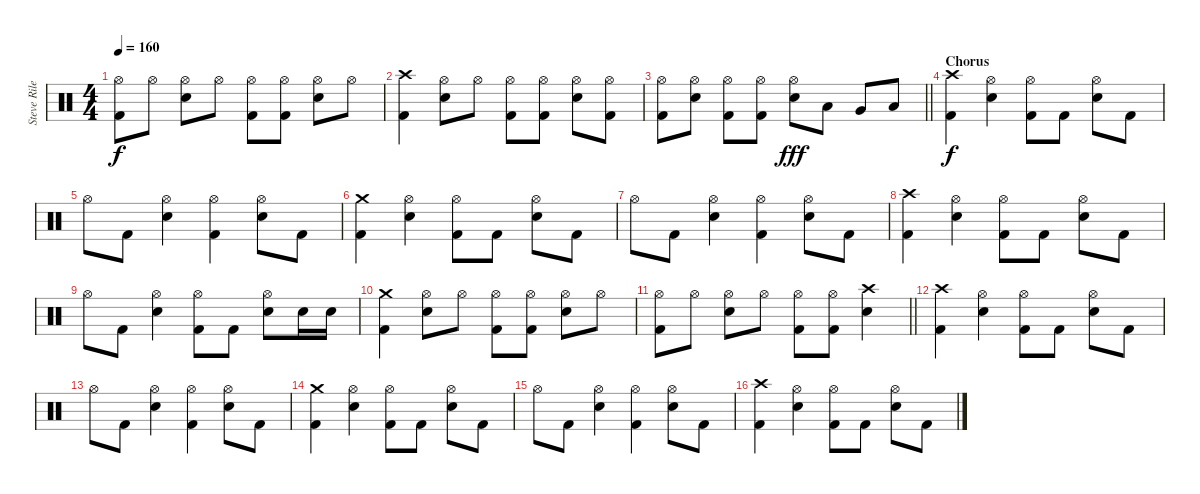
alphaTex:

\track ("Steve Riley" "Steve Rile") {instrument percussion}
\staff {score}
\articulation defaults
\ts (4 4)
\tempo 160
\clef neutral
\ks c
("Hi-Hat (open)" "Kick (hit) 2").8{dy f} "Hi-Hat (open)".8 ("Hi-Hat (open)" "Snare (hit) 2").8 "Hi-Hat (open)".8 ("Hi-Hat (open)" "Kick (hit) 2").8 ("Hi-Hat (open)" "Kick (hit) 2").8 ("Hi-Hat (open)" "Snare (hit) 2").8 "Hi-Hat (open)".8 |
("Crash high (hit)" "Kick (hit) 2").4 ("Hi-Hat (open)" "Snare (hit) 2").8 "Hi-Hat (open)".8 ("Hi-Hat (open)" "Kick (hit) 2").8 ("Hi-Hat (open)" "Kick (hit) 2").8 ("Hi-Hat (open)" "Snare (hit) 2").8 ("Hi-Hat (open)" "Kick (hit) 2").8 |
\barLineRight lightlight
("Hi-Hat (open)" "Kick (hit) 2").8 ("Hi-Hat (open)" "Snare (hit) 2").8 ("Hi-Hat (open)" "Kick (hit) 2").8 ("Hi-Hat (open)" "Kick (hit) 2").8 ("Hi-Hat (open)" "Snare (hit) 2").8{dy fff} "Low Tom (hit)".8 "Very Low Tom (hit)".8 "Low Floor Tom (hit)".8 |
\section ("" "Chorus")
("Crash high (hit)" "Kick (hit) 2").4{dy f} ("Hi-Hat (open)" "Snare (hit) 2").4 ("Hi-Hat (open)" "Kick (hit) 2").8 "Kick (hit) 2".8 ("Hi-Hat (open)" "Snare (hit) 2").8 "Kick (hit) 2".8 |
"Hi-Hat (open)".8 "Kick (hit) 2".8 ("Hi-Hat (open)" "Snare (hit) 2").4 ("Hi-Hat (open)" "Kick (hit) 2").4 ("Hi-Hat (open)" "Snare (hit) 2").8 "Kick (hit) 2".8 |
("Crash medium (hit)" "Kick (hit) 2").4 ("Hi-Hat (open)" "Snare (hit) 2").4 ("Hi-Hat (open)" "Kick (hit) 2").8 "Kick (hit) 2".8 ("Hi-Hat (open)" "Snare (hit) 2").8 "Kick (hit) 2".8 |
"Hi-Hat (open)".8 "Kick (hit) 2".8 ("Hi-Hat (open)" "Snare (hit) 2").4 ("Hi-Hat (open)" "Kick (hit) 2").4 ("Hi-Hat (open)" "Snare (hit) 2").8 "Kick (hit) 2".8 |
("Crash high (hit)" "Kick (hit) 2").4 ("Hi-Hat (open)" "Snare (hit) 2").4 ("Hi-Hat (open)" "Kick (hit) 2").8 "Kick (hit) 2".8 ("Hi-Hat (open)" "Snare (hit) 2").8 "Kick (hit) 2".8 |
"Hi-Hat (open)".8 "Kick (hit) 2".8 ("Hi-Hat (open)" "Snare (hit) 2").4 ("Hi-Hat (open)" "Kick (hit) 2").8 "Kick (hit) 2".8 ("Hi-Hat (open)" "Snare (hit) 2").8 "Snare (hit) 2".16 "Snare (hit) 2".16 |
("Crash medium (hit)" "Kick (hit) 2").4 ("Hi-Hat (open)" "Snare (hit) 2").8 "Hi-Hat (open)".8 ("Hi-Hat (open)" "Kick (hit) 2").8 ("Hi-Hat (open)" "Kick (hit) 2").8 ("Hi-Hat (open)" "Snare (hit) 2").8 "Hi-Hat (open)".8 |
\barLineRight lightlight
("Hi-Hat (open)" "Kick (hit) 2").8 "Hi-Hat (open)".8 ("Hi-Hat (open)" "Snare (hit) 2").8 "Hi-Hat (open)".8 ("Hi-Hat (open)" "Kick (hit) 2").8 ("Hi-Hat (open)" "Kick (hit) 2").8 ("Crash high (hit)" "Snare (hit) 2").4 |
("Crash high (hit)" "Kick (hit) 2").4 ("Hi-Hat (open)" "Snare (hit) 2").4 ("Hi-Hat (open)" "Kick (hit) 2").8 "Kick (hit) 2".8 ("Hi-Hat (open)" "Snare (hit) 2").8 "Kick (hit) 2".8 |
"Hi-Hat (open)".8 "Kick (hit) 2".8 ("Hi-Hat (open)" "Snare (hit) 2").4 ("Hi-Hat (open)" "Kick (hit) 2").4 ("Hi-Hat (open)" "Snare (hit) 2").8 "Kick (hit) 2".8 |
("Crash medium (hit)" "Kick (hit) 2").4 ("Hi-Hat (open)" "Snare (hit) 2").4 ("Hi-Hat (open)" "Kick (hit) 2").8 "Kick (hit) 2".8 ("Hi-Hat (open)" "Snare (hit) 2").8 "Kick (hit) 2".8 |
"Hi-Hat (open)".8 "Kick (hit) 2".8 ("Hi-Hat (open)" "Snare (hit) 2").4 ("Hi-Hat (open)" "Kick (hit) 2").4 ("Hi-Hat (open)" "Snare (hit) 2").8 "Kick (hit) 2".8 |
("Crash high (hit)" "Kick (hit) 2").4 ("Hi-Hat (open)" "Snare (hit) 2").4 ("Hi-Hat (open)" "Kick (hit) 2").8 "Kick (hit) 2".8 ("Hi-Hat (open)" "Snare (hit) 2").8 "Kick (hit) 2".8
